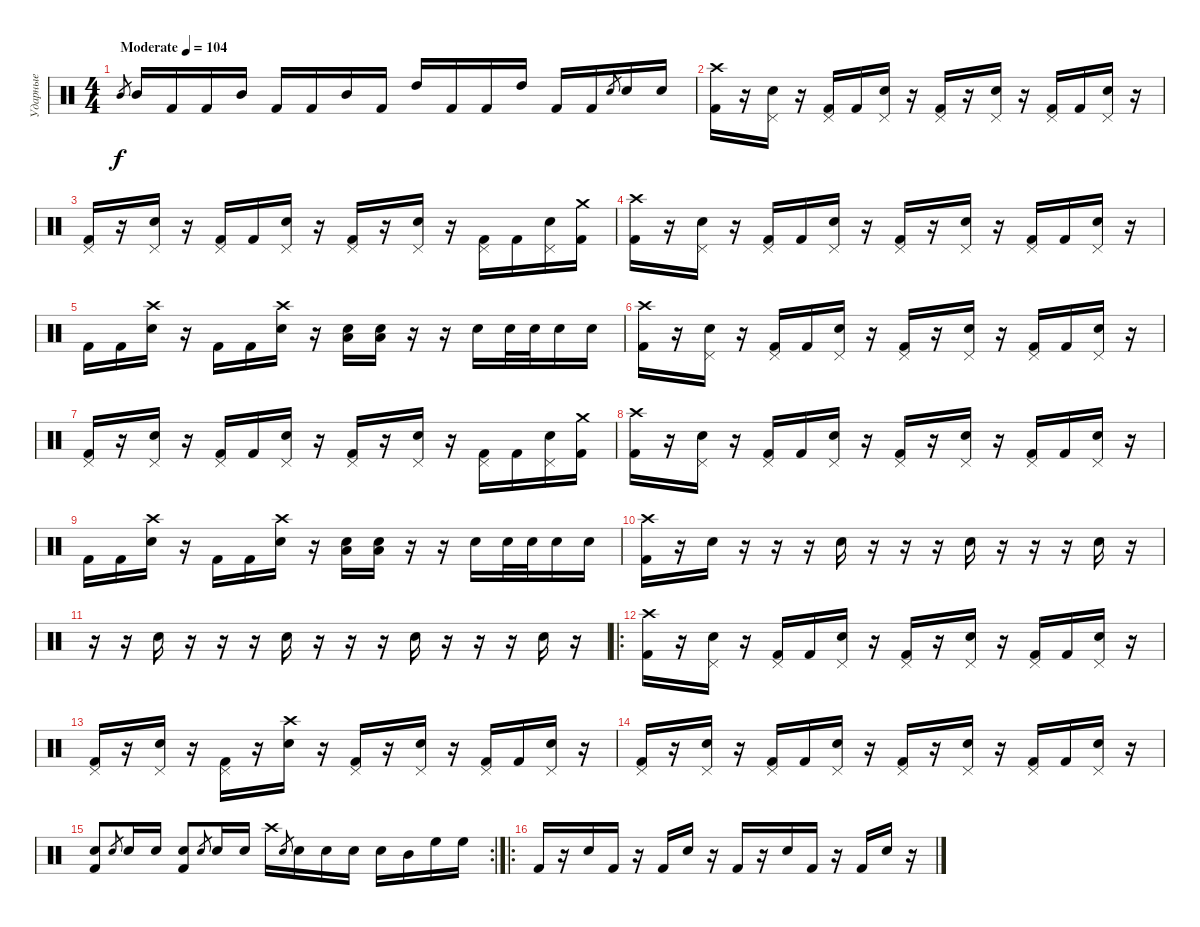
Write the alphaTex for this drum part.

\track ("Ударные" "Ударные") {instrument percussion}
\staff
\articulation defaults
\ts (4 4)
\tempo (104 "Moderate")
\clef neutral
\ks c "Mid Tom (hit)".8{gr dy f} "Mid Tom (hit)".16 "Kick (hit) 2".16 "Kick (hit) 2".16 "Mid Tom (hit)".16 "Kick (hit) 2".16 "Kick (hit) 2".16 "Mid Tom (hit)".16 "Kick (hit) 2".16 "High Tom (hit)".16 "Kick (hit) 2".16 "Kick (hit) 2".16 "High Tom (hit)".16 "Kick (hit) 2".16 "Kick (hit) 2".16 "Electric Snare (hit)".8{gr} "Electric Snare (hit)".16 "Electric Snare (hit)".16
|
("Crash high (hit)" "Kick (hit) 2").16 r.16 ("Pedal Hi-Hat (hit)" "Electric Snare (hit)").16 r.16 ("Pedal Hi-Hat (hit)" "Kick (hit) 2").16 "Kick (hit) 2".16 ("Pedal Hi-Hat (hit)" "Electric Snare (hit)").16 r.16 ("Pedal Hi-Hat (hit)" "Kick (hit) 2").16 r.16 ("Pedal Hi-Hat (hit)" "Electric Snare (hit)").16 r.16 ("Pedal Hi-Hat (hit)" "Kick (hit) 2").16 "Kick (hit) 2".16 ("Pedal Hi-Hat (hit)" "Electric Snare (hit)").16 r.16 |
("Pedal Hi-Hat (hit)" "Kick (hit) 2").16 r.16 ("Pedal Hi-Hat (hit)" "Electric Snare (hit)").16 r.16 ("Pedal Hi-Hat (hit)" "Kick (hit) 2").16 "Kick (hit) 2".16 ("Pedal Hi-Hat (hit)" "Electric Snare (hit)").16 r.16 ("Pedal Hi-Hat (hit)" "Kick (hit) 2").16 r.16 ("Pedal Hi-Hat (hit)" "Electric Snare (hit)").16 r.16 ("Pedal Hi-Hat (hit)" "Kick (hit) 2").16 "Kick (hit) 2".16 ("Pedal Hi-Hat (hit)" "Electric Snare (hit)").16 ("Crash medium (hit)" "Kick (hit) 2").16 |
("Crash high (hit)" "Kick (hit) 2").16 r.16 ("Pedal Hi-Hat (hit)" "Electric Snare (hit)").16 r.16 ("Pedal Hi-Hat (hit)" "Kick (hit) 2").16 "Kick (hit) 2".16 ("Pedal Hi-Hat (hit)" "Electric Snare (hit)").16 r.16 ("Pedal Hi-Hat (hit)" "Kick (hit) 2").16 r.16 ("Pedal Hi-Hat (hit)" "Electric Snare (hit)").16 r.16 ("Pedal Hi-Hat (hit)" "Kick (hit) 2").16 "Kick (hit) 2".16 ("Pedal Hi-Hat (hit)" "Electric Snare (hit)").16 r.16 |
"Kick (hit) 2".16 "Kick (hit) 2".16 ("Crash high (hit)" "Electric Snare (hit)").16 r.16 "Kick (hit) 2".16 "Kick (hit) 2".16 ("Crash high (hit)" "Electric Snare (hit)").16 r.16 ("Electric Snare (hit)" "Low Tom (hit)").16 ("Electric Snare (hit)" "Low Tom (hit)").16 r.16 r.16 "Electric Snare (hit)".16 "Electric Snare (hit)".32 "Electric Snare (hit)".32 "Electric Snare (hit)".16 "Electric Snare (hit)".16 |
("Crash high (hit)" "Kick (hit) 2").16 r.16 ("Pedal Hi-Hat (hit)" "Electric Snare (hit)").16 r.16 ("Pedal Hi-Hat (hit)" "Kick (hit) 2").16 "Kick (hit) 2".16 ("Pedal Hi-Hat (hit)" "Electric Snare (hit)").16 r.16 ("Pedal Hi-Hat (hit)" "Kick (hit) 2").16 r.16 ("Pedal Hi-Hat (hit)" "Electric Snare (hit)").16 r.16 ("Pedal Hi-Hat (hit)" "Kick (hit) 2").16 "Kick (hit) 2".16 ("Pedal Hi-Hat (hit)" "Electric Snare (hit)").16 r.16 |
("Pedal Hi-Hat (hit)" "Kick (hit) 2").16 r.16 ("Pedal Hi-Hat (hit)" "Electric Snare (hit)").16 r.16 ("Pedal Hi-Hat (hit)" "Kick (hit) 2").16 "Kick (hit) 2".16 ("Pedal Hi-Hat (hit)" "Electric Snare (hit)").16 r.16 ("Pedal Hi-Hat (hit)" "Kick (hit) 2").16 r.16 ("Pedal Hi-Hat (hit)" "Electric Snare (hit)").16 r.16 ("Pedal Hi-Hat (hit)" "Kick (hit) 2").16 "Kick (hit) 2".16 ("Pedal Hi-Hat (hit)" "Electric Snare (hit)").16 ("Crash medium (hit)" "Kick (hit) 2").16 |
("Crash high (hit)" "Kick (hit) 2").16 r.16 ("Pedal Hi-Hat (hit)" "Electric Snare (hit)").16 r.16 ("Pedal Hi-Hat (hit)" "Kick (hit) 2").16 "Kick (hit) 2".16 ("Pedal Hi-Hat (hit)" "Electric Snare (hit)").16 r.16 ("Pedal Hi-Hat (hit)" "Kick (hit) 2").16 r.16 ("Pedal Hi-Hat (hit)" "Electric Snare (hit)").16 r.16 ("Pedal Hi-Hat (hit)" "Kick (hit) 2").16 "Kick (hit) 2".16 ("Pedal Hi-Hat (hit)" "Electric Snare (hit)").16 r.16 |
"Kick (hit) 2".16 "Kick (hit) 2".16 ("Crash high (hit)" "Electric Snare (hit)").16 r.16 "Kick (hit) 2".16 "Kick (hit) 2".16 ("Crash high (hit)" "Electric Snare (hit)").16 r.16 ("Electric Snare (hit)" "Low Tom (hit)").16 ("Electric Snare (hit)" "Low Tom (hit)").16 r.16 r.16 "Electric Snare (hit)".16 "Electric Snare (hit)".32 "Electric Snare (hit)".32 "Electric Snare (hit)".16 "Electric Snare (hit)".16 |
("Crash high (hit)" "Kick (hit) 2").16 r.16 "Electric Snare (hit)".16 r.16 r.16 r.16 "Electric Snare (hit)".16 r.16 r.16 r.16 "Electric Snare (hit)".16 r.16 r.16 r.16 "Electric Snare (hit)".16 r.16 |
r.16 r.16 "Electric Snare (hit)".16 r.16 r.16 r.16 "Electric Snare (hit)".16 r.16 r.16 r.16 "Electric Snare (hit)".16 r.16 r.16 r.16 "Electric Snare (hit)".16 r.16 |
\ro
("Crash high (hit)" "Kick (hit) 2").16 r.16 ("Pedal Hi-Hat (hit)" "Electric Snare (hit)").16 r.16 ("Pedal Hi-Hat (hit)" "Kick (hit) 2").16 "Kick (hit) 2".16 ("Pedal Hi-Hat (hit)" "Electric Snare (hit)").16 r.16 ("Pedal Hi-Hat (hit)" "Kick (hit) 2").16 r.16 ("Pedal Hi-Hat (hit)" "Electric Snare (hit)").16 r.16 ("Pedal Hi-Hat (hit)" "Kick (hit) 2").16 "Kick (hit) 2".16 ("Pedal Hi-Hat (hit)" "Electric Snare (hit)").16 r.16 |
("Pedal Hi-Hat (hit)" "Kick (hit) 2").16 r.16 ("Pedal Hi-Hat (hit)" "Electric Snare (hit)").16 r.16 ("Pedal Hi-Hat (hit)" "Kick (hit) 2").16 r.16 ("Crash high (hit)" "Electric Snare (hit)").16 r.16 ("Pedal Hi-Hat (hit)" "Kick (hit) 2").16 r.16 ("Pedal Hi-Hat (hit)" "Electric Snare (hit)").16 r.16 ("Pedal Hi-Hat (hit)" "Kick (hit) 2").16 "Kick (hit) 2".16 ("Pedal Hi-Hat (hit)" "Electric Snare (hit)").16 r.16 |
("Pedal Hi-Hat (hit)" "Kick (hit) 2").16 r.16 ("Pedal Hi-Hat (hit)" "Electric Snare (hit)").16 r.16 ("Pedal Hi-Hat (hit)" "Kick (hit) 2").16 "Kick (hit) 2".16 ("Pedal Hi-Hat (hit)" "Electric Snare (hit)").16 r.16 ("Pedal Hi-Hat (hit)" "Kick (hit) 2").16 r.16 ("Pedal Hi-Hat (hit)" "Electric Snare (hit)").16 r.16 ("Pedal Hi-Hat (hit)" "Kick (hit) 2").16 "Kick (hit) 2".16 ("Pedal Hi-Hat (hit)" "Electric Snare (hit)").16 r.16 |
\rc 2
("Electric Snare (hit)" "Kick (hit) 2").8 "Electric Snare (hit)".8{gr} "Electric Snare (hit)".16 "Electric Snare (hit)".16 ("Electric Snare (hit)" "Kick (hit) 2").8 "Electric Snare (hit)".8{gr} "Electric Snare (hit)".16 "Electric Snare (hit)".16 "Crash high (hit)".16 "Electric Snare (hit)".8{gr} "Electric Snare (hit)".16 "Electric Snare (hit)".16 "Electric Snare (hit)".16 "Electric Snare (hit)".16 "Mid Tom (hit)".16 "High Floor Tom (hit)".16 "High Floor Tom (hit)".16 |
\ro "Kick (hit) 2".16
r.16 "Electric Snare (hit)".16 "Kick (hit) 2".16 r.16 "Kick (hit) 2".16 "Electric Snare (hit)".16 r.16 "Kick (hit) 2".16 r.16 "Electric Snare (hit)".16 "Kick (hit) 2".16 r.16 "Kick (hit) 2".16 "Electric Snare (hit)".16 r.16
